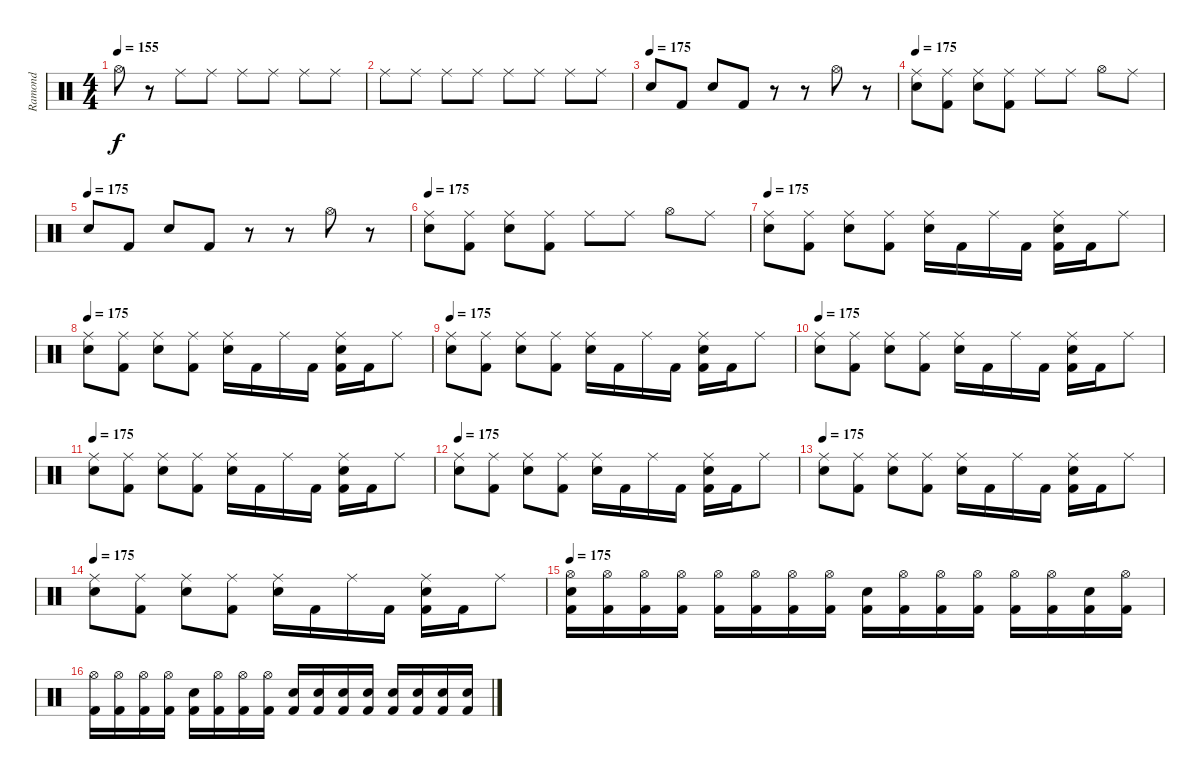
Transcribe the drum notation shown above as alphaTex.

\track ("Ramond" "Ramond") {instrument percussion}
\staff {score}
\articulation defaults
\ts (4 4)
\tempo 155
\clef neutral
\ks c "Hi-Hat (open)".8{dy f}
r.8 "Ride (middle)".8 "Ride (middle)".8 "Ride (middle)".8 "Ride (middle)".8 "Ride (middle)".8 "Ride (middle)".8 |
"Ride (middle)".8 "Ride (middle)".8 "Ride (middle)".8 "Ride (middle)".8 "Ride (middle)".8 "Ride (middle)".8 "Ride (middle)".8 "Ride (middle)".8 |
\tempo (175)
"Electric Snare (hit)".8 "Kick (hit) 2".8 "Electric Snare (hit)".8 "Kick (hit) 2".8 r.8 r.8 "Hi-Hat (open)".8 r.8 |
\tempo 175
("Ride (middle)" "Electric Snare (hit)").8 ("Ride (middle)" "Kick (hit) 2").8 ("Ride (middle)" "Electric Snare (hit)").8 ("Ride (middle)" "Kick (hit) 2").8 "Ride (middle)".8 "Ride (middle)".8 "Hi-Hat (open)".8 "Ride (middle)".8 |
\tempo (175)
"Electric Snare (hit)".8 "Kick (hit) 2".8 "Electric Snare (hit)".8 "Kick (hit) 2".8 r.8 r.8 "Hi-Hat (open)".8 r.8 |
\tempo 175
("Ride (middle)" "Electric Snare (hit)").8 ("Ride (middle)" "Kick (hit) 2").8 ("Ride (middle)" "Electric Snare (hit)").8 ("Ride (middle)" "Kick (hit) 2").8 "Ride (middle)".8 "Ride (middle)".8 "Hi-Hat (open)".8 "Ride (middle)".8 |
\tempo 175
("Ride (middle)" "Electric Snare (hit)").8 ("Ride (middle)" "Kick (hit) 2").8 ("Ride (middle)" "Electric Snare (hit)").8 ("Ride (middle)" "Kick (hit) 2").8 ("Ride (middle)" "Electric Snare (hit)").16 "Kick (hit) 2".16 "Ride (middle)".16 "Kick (hit) 2".16 ("Ride (middle)" "Electric Snare (hit)" "Kick (hit) 2").16 "Kick (hit) 2".16 "Ride (middle)".8 |
\tempo 175
("Ride (middle)" "Electric Snare (hit)").8 ("Ride (middle)" "Kick (hit) 2").8 ("Ride (middle)" "Electric Snare (hit)").8 ("Ride (middle)" "Kick (hit) 2").8 ("Ride (middle)" "Electric Snare (hit)").16 "Kick (hit) 2".16 "Ride (middle)".16 "Kick (hit) 2".16 ("Ride (middle)" "Electric Snare (hit)" "Kick (hit) 2").16 "Kick (hit) 2".16 "Ride (middle)".8 |
\tempo 175
("Ride (middle)" "Electric Snare (hit)").8 ("Ride (middle)" "Kick (hit) 2").8 ("Ride (middle)" "Electric Snare (hit)").8 ("Ride (middle)" "Kick (hit) 2").8 ("Ride (middle)" "Electric Snare (hit)").16 "Kick (hit) 2".16 "Ride (middle)".16 "Kick (hit) 2".16 ("Ride (middle)" "Electric Snare (hit)" "Kick (hit) 2").16 "Kick (hit) 2".16 "Ride (middle)".8 |
\tempo 175
("Ride (middle)" "Electric Snare (hit)").8 ("Ride (middle)" "Kick (hit) 2").8 ("Ride (middle)" "Electric Snare (hit)").8 ("Ride (middle)" "Kick (hit) 2").8 ("Ride (middle)" "Electric Snare (hit)").16 "Kick (hit) 2".16 "Ride (middle)".16 "Kick (hit) 2".16 ("Ride (middle)" "Electric Snare (hit)" "Kick (hit) 2").16 "Kick (hit) 2".16 "Ride (middle)".8 |
\tempo 175
("Ride (middle)" "Electric Snare (hit)").8 ("Ride (middle)" "Kick (hit) 2").8 ("Ride (middle)" "Electric Snare (hit)").8 ("Ride (middle)" "Kick (hit) 2").8 ("Ride (middle)" "Electric Snare (hit)").16 "Kick (hit) 2".16 "Ride (middle)".16 "Kick (hit) 2".16 ("Ride (middle)" "Electric Snare (hit)" "Kick (hit) 2").16 "Kick (hit) 2".16 "Ride (middle)".8 |
\tempo 175
("Ride (middle)" "Electric Snare (hit)").8 ("Ride (middle)" "Kick (hit) 2").8 ("Ride (middle)" "Electric Snare (hit)").8 ("Ride (middle)" "Kick (hit) 2").8 ("Ride (middle)" "Electric Snare (hit)").16 "Kick (hit) 2".16 "Ride (middle)".16 "Kick (hit) 2".16 ("Ride (middle)" "Electric Snare (hit)" "Kick (hit) 2").16 "Kick (hit) 2".16 "Ride (middle)".8 |
\tempo 175
("Ride (middle)" "Electric Snare (hit)").8 ("Ride (middle)" "Kick (hit) 2").8 ("Ride (middle)" "Electric Snare (hit)").8 ("Ride (middle)" "Kick (hit) 2").8 ("Ride (middle)" "Electric Snare (hit)").16 "Kick (hit) 2".16 "Ride (middle)".16 "Kick (hit) 2".16 ("Ride (middle)" "Electric Snare (hit)" "Kick (hit) 2").16 "Kick (hit) 2".16 "Ride (middle)".8 |
\tempo 175
("Ride (middle)" "Electric Snare (hit)").8 ("Ride (middle)" "Kick (hit) 2").8 ("Ride (middle)" "Electric Snare (hit)").8 ("Ride (middle)" "Kick (hit) 2").8 ("Ride (middle)" "Electric Snare (hit)").16 "Kick (hit) 2".16 "Ride (middle)".16 "Kick (hit) 2".16 ("Ride (middle)" "Electric Snare (hit)" "Kick (hit) 2").16 "Kick (hit) 2".16 "Ride (middle)".8 |
\tempo 175
("Hi-Hat (open)" "Electric Snare (hit)" "Kick (hit) 2").16 ("Hi-Hat (open)" "Kick (hit) 2").16 ("Hi-Hat (open)" "Kick (hit) 2").16 ("Hi-Hat (open)" "Kick (hit) 2").16 ("Hi-Hat (open)" "Kick (hit) 2").16 ("Hi-Hat (open)" "Kick (hit) 2").16 ("Hi-Hat (open)" "Kick (hit) 2").16 ("Hi-Hat (open)" "Kick (hit) 2").16 ("Electric Snare (hit)" "Kick (hit) 2").16 ("Hi-Hat (open)" "Kick (hit) 2").16 ("Hi-Hat (open)" "Kick (hit) 2").16 ("Hi-Hat (open)" "Kick (hit) 2").16 ("Hi-Hat (open)" "Kick (hit) 2").16 ("Hi-Hat (open)" "Kick (hit) 2").16 ("Electric Snare (hit)" "Kick (hit) 2").16 ("Hi-Hat (open)" "Kick (hit) 2").16 |
("Hi-Hat (open)" "Kick (hit) 2").16 ("Hi-Hat (open)" "Kick (hit) 2").16 ("Hi-Hat (open)" "Kick (hit) 2").16 ("Hi-Hat (open)" "Kick (hit) 2").16 ("Electric Snare (hit)" "Kick (hit) 2").16 ("Hi-Hat (open)" "Kick (hit) 2").16 ("Hi-Hat (open)" "Kick (hit) 2").16 ("Hi-Hat (open)" "Kick (hit) 2").16 ("Electric Snare (hit)" "Kick (hit) 2").16 ("Electric Snare (hit)" "Kick (hit) 2").16 ("Electric Snare (hit)" "Kick (hit) 2").16 ("Electric Snare (hit)" "Kick (hit) 2").16 ("Electric Snare (hit)" "Kick (hit) 2").16 ("Electric Snare (hit)" "Kick (hit) 2").16 ("Electric Snare (hit)" "Kick (hit) 2").16 ("Electric Snare (hit)" "Kick (hit) 2").16
